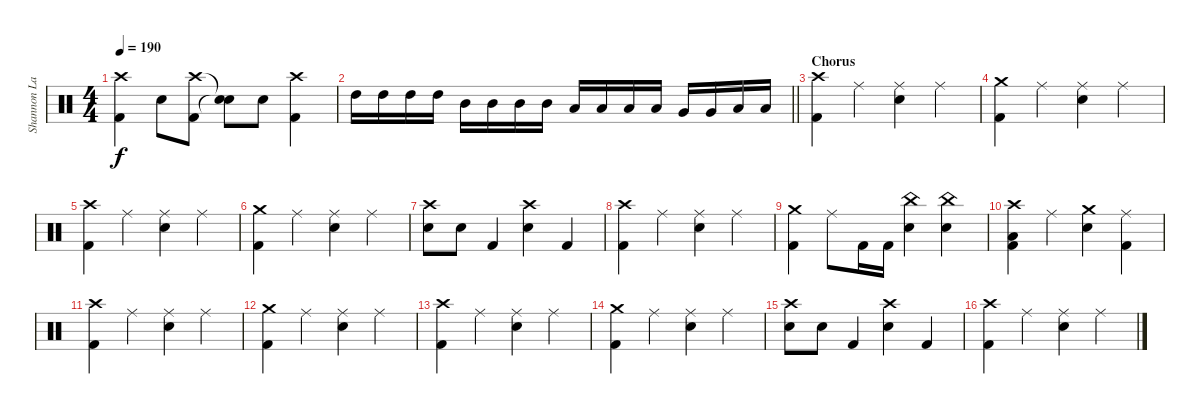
\track ("Shannon Larkin" "Shannon La") {instrument percussion}
\staff {score}
\articulation defaults
\ts (4 4)
\tempo 190
\clef neutral
\ks c
("Crash high (hit)" "Kick (hit) 2").4{dy f} "Snare (hit) 2".8 ("Crash high (hit)" "Kick (hit) 2").8 ("Snare (hit)"{t} "Snare (hit)"{t}).8 "Snare (hit) 2".8 ("Crash high (hit)" "Kick (hit) 2").4 |
\barLineRight lightlight "High Tom (hit)".16 "High Tom (hit)".16 "High Tom (hit)".16 "High Tom (hit)".16 "Mid Tom (hit)".16 "Mid Tom (hit)".16 "Mid Tom (hit)".16 "Mid Tom (hit)".16 "Low Tom (hit)".16 "Low Tom (hit)".16 "Low Tom (hit)".16 "Low Tom (hit)".16 "Very Low Tom (hit)".16 "Very Low Tom (hit)".16 "Low Floor Tom (hit)".16 "Low Floor Tom (hit)".16
|
\section ("" "Chorus")
("Crash high (hit)" "Kick (hit) 2").4 "Ride (middle)".4 ("Ride (middle)" "Snare (hit) 2").4 "Ride (middle)".4 |
("Crash medium (hit)" "Kick (hit) 2").4 "Ride (middle)".4 ("Ride (middle)" "Snare (hit) 2").4 "Ride (middle)".4 |
("Crash high (hit)" "Kick (hit) 2").4 "Ride (middle)".4 ("Ride (middle)" "Snare (hit) 2").4 "Ride (middle)".4 |
("Crash medium (hit)" "Kick (hit) 2").4 "Ride (middle)".4 ("Ride (middle)" "Snare (hit) 2").4 "Ride (middle)".4 |
("Crash high (hit)" "Snare (hit) 2").8 "Snare (hit) 2".8 "Kick (hit) 2".4 ("Crash high (hit)" "Snare (hit) 2").4 "Kick (hit) 2".4 |
("Crash high (hit)" "Kick (hit) 2").4 "Ride (middle)".4 ("Ride (middle)" "Snare (hit) 2").4 "Ride (middle)".4 |
("Crash medium (hit)" "Kick (hit) 2").4 "Ride (middle)".8 "Kick (hit) 2".16 "Kick (hit) 2".16 ("China (hit)" "Snare (hit) 2").4 ("China (hit)" "Snare (hit) 2").4 |
("Crash high (hit)" "Low Tom (hit)" "Kick (hit) 2").4 "Ride (middle)".4 ("Crash medium (hit)" "Snare (hit) 2").4 ("Ride (middle)" "Kick (hit) 2").4 |
("Crash high (hit)" "Kick (hit) 2").4 "Ride (middle)".4 ("Ride (middle)" "Snare (hit) 2").4 "Ride (middle)".4 |
("Crash medium (hit)" "Kick (hit) 2").4 "Ride (middle)".4 ("Ride (middle)" "Snare (hit) 2").4 "Ride (middle)".4 |
("Crash high (hit)" "Kick (hit) 2").4 "Ride (middle)".4 ("Ride (middle)" "Snare (hit) 2").4 "Ride (middle)".4 |
("Crash medium (hit)" "Kick (hit) 2").4 "Ride (middle)".4 ("Ride (middle)" "Snare (hit) 2").4 "Ride (middle)".4 |
("Crash high (hit)" "Snare (hit) 2").8 "Snare (hit) 2".8 "Kick (hit) 2".4 ("Crash high (hit)" "Snare (hit) 2").4 "Kick (hit) 2".4 |
("Crash high (hit)" "Kick (hit) 2").4 "Ride (middle)".4 ("Ride (middle)" "Snare (hit) 2").4 "Ride (middle)".4
